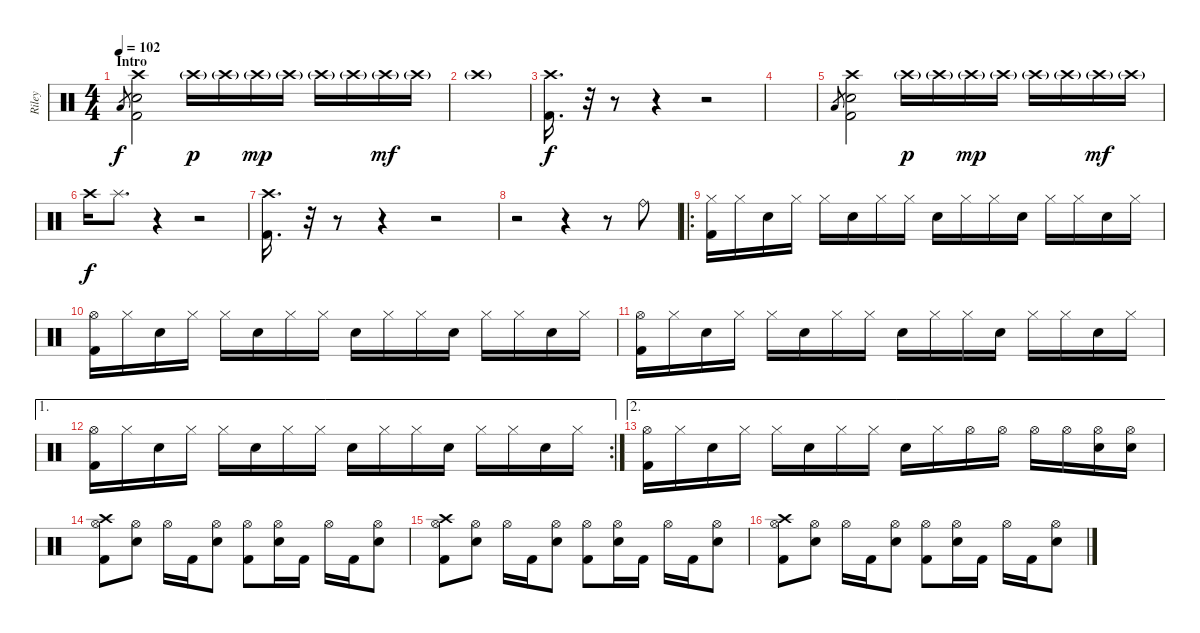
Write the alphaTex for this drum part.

\track ("Riley" "Riley") {instrument percussion}
\staff {score}
\articulation defaults
\ts (4 4)
\section ("" "Intro")
\tempo 102
\clef neutral
\ks c "Low Tom (hit)".8{gr dy f}
("Crash high (hit)" "Electric Snare (hit)" "Kick (hit) 2").2 "Crash high (hit)"{g}.16{dy p} "Crash high (hit)"{g}.16 "Crash high (hit)"{g}.16{dy mp} "Crash high (hit)"{g}.16 "Crash high (hit)"{g}.16 "Crash high (hit)"{g}.16 "Crash high (hit)"{g}.16{dy mf} "Crash high (hit)"{g}.16 |
"Crash high (hit)"{g}.1 |
("Crash high (hit)" "Kick (hit) 2").16{d dy f} r.32{volume 0} r.8{volume 13} r.4 r.2 |
|
"Low Tom (hit)".8{gr} ("Crash high (hit)" "Electric Snare (hit)" "Kick (hit) 2").2 "Crash high (hit)"{g}.16{dy p} "Crash high (hit)"{g}.16 "Crash high (hit)"{g}.16{dy mp} "Crash high (hit)"{g}.16 "Crash high (hit)"{g}.16 "Crash high (hit)"{g}.16 "Crash high (hit)"{g}.16{dy mf} "Crash high (hit)"{g}.16 |
"Crash high (hit)".16{dy f} "Splash (hit)".8{d} r.4 r.2 |
("Crash high (hit)" "Kick (hit) 2").16{d} r.32{volume 0} r.8{volume 13} r.4 r.2 |
r.2 r.4 r.8 "Ride (bell)".8 |
\ro
("Hi-Hat (closed)" "Kick (hit) 2").16 "Hi-Hat (closed)".16 "Electric Snare (hit)".16 "Hi-Hat (closed)".16 "Hi-Hat (closed)".16 "Electric Snare (hit)".16 "Hi-Hat (closed)".16 "Hi-Hat (closed)".16 "Electric Snare (hit)".16 "Hi-Hat (closed)".16 "Hi-Hat (closed)".16 "Electric Snare (hit)".16 "Hi-Hat (closed)".16 "Hi-Hat (closed)".16 "Electric Snare (hit)".16 "Hi-Hat (closed)".16 |
("Hi-Hat (open)" "Kick (hit) 2").16 "Hi-Hat (closed)".16 "Electric Snare (hit)".16 "Hi-Hat (closed)".16 "Hi-Hat (closed)".16 "Electric Snare (hit)".16 "Hi-Hat (closed)".16 "Hi-Hat (closed)".16 "Electric Snare (hit)".16 "Hi-Hat (closed)".16 "Hi-Hat (closed)".16 "Electric Snare (hit)".16 "Hi-Hat (closed)".16 "Hi-Hat (closed)".16 "Electric Snare (hit)".16 "Hi-Hat (closed)".16 |
("Hi-Hat (open)" "Kick (hit) 2").16 "Hi-Hat (closed)".16 "Electric Snare (hit)".16 "Hi-Hat (closed)".16 "Hi-Hat (closed)".16 "Electric Snare (hit)".16 "Hi-Hat (closed)".16 "Hi-Hat (closed)".16 "Electric Snare (hit)".16 "Hi-Hat (closed)".16 "Hi-Hat (closed)".16 "Electric Snare (hit)".16 "Hi-Hat (closed)".16 "Hi-Hat (closed)".16 "Electric Snare (hit)".16 "Hi-Hat (closed)".16 |
\ae 1
\rc 2
("Hi-Hat (open)" "Kick (hit) 2").16 "Hi-Hat (closed)".16 "Electric Snare (hit)".16 "Hi-Hat (closed)".16 "Hi-Hat (closed)".16 "Electric Snare (hit)".16 "Hi-Hat (closed)".16 "Hi-Hat (closed)".16 "Electric Snare (hit)".16 "Hi-Hat (closed)".16 "Hi-Hat (closed)".16 "Electric Snare (hit)".16 "Hi-Hat (closed)".16 "Hi-Hat (closed)".16 "Electric Snare (hit)".16 "Hi-Hat (closed)".16 |
\ae 2
("Hi-Hat (open)" "Kick (hit) 2").16 "Hi-Hat (closed)".16 "Electric Snare (hit)".16 "Hi-Hat (closed)".16 "Hi-Hat (closed)".16 "Electric Snare (hit)".16 "Hi-Hat (closed)".16 "Hi-Hat (closed)".16 "Electric Snare (hit)".16 "Hi-Hat (closed)".16 "Hi-Hat (open)".16 "Hi-Hat (open)".16 "Hi-Hat (open)".16 "Hi-Hat (open)".16 ("Hi-Hat (open)" "Electric Snare (hit)").16 ("Hi-Hat (open)" "Electric Snare (hit)").16 |
("Crash high (hit)" "Hi-Hat (open)" "Kick (hit) 2").8 ("Hi-Hat (open)" "Electric Snare (hit)").8 "Hi-Hat (open)".16 "Kick (hit) 2".16 ("Hi-Hat (open)" "Electric Snare (hit)").8 ("Hi-Hat (open)" "Kick (hit) 2").8 ("Hi-Hat (open)" "Electric Snare (hit)").16 "Kick (hit) 2".16 "Hi-Hat (open)".16 "Kick (hit) 2".16 ("Hi-Hat (open)" "Electric Snare (hit)").8 |
("Crash high (hit)" "Hi-Hat (open)" "Kick (hit) 2").8 ("Hi-Hat (open)" "Electric Snare (hit)").8 "Hi-Hat (open)".16 "Kick (hit) 2".16 ("Hi-Hat (open)" "Electric Snare (hit)").8 ("Hi-Hat (open)" "Kick (hit) 2").8 ("Hi-Hat (open)" "Electric Snare (hit)").16 "Kick (hit) 2".16 "Hi-Hat (open)".16 "Kick (hit) 2".16 ("Hi-Hat (open)" "Electric Snare (hit)").8 |
("Crash high (hit)" "Hi-Hat (open)" "Kick (hit) 2").8 ("Hi-Hat (open)" "Electric Snare (hit)").8 "Hi-Hat (open)".16 "Kick (hit) 2".16 ("Hi-Hat (open)" "Electric Snare (hit)").8 ("Hi-Hat (open)" "Kick (hit) 2").8 ("Hi-Hat (open)" "Electric Snare (hit)").16 "Kick (hit) 2".16 "Hi-Hat (open)".16 "Kick (hit) 2".16 ("Hi-Hat (open)" "Electric Snare (hit)").8
